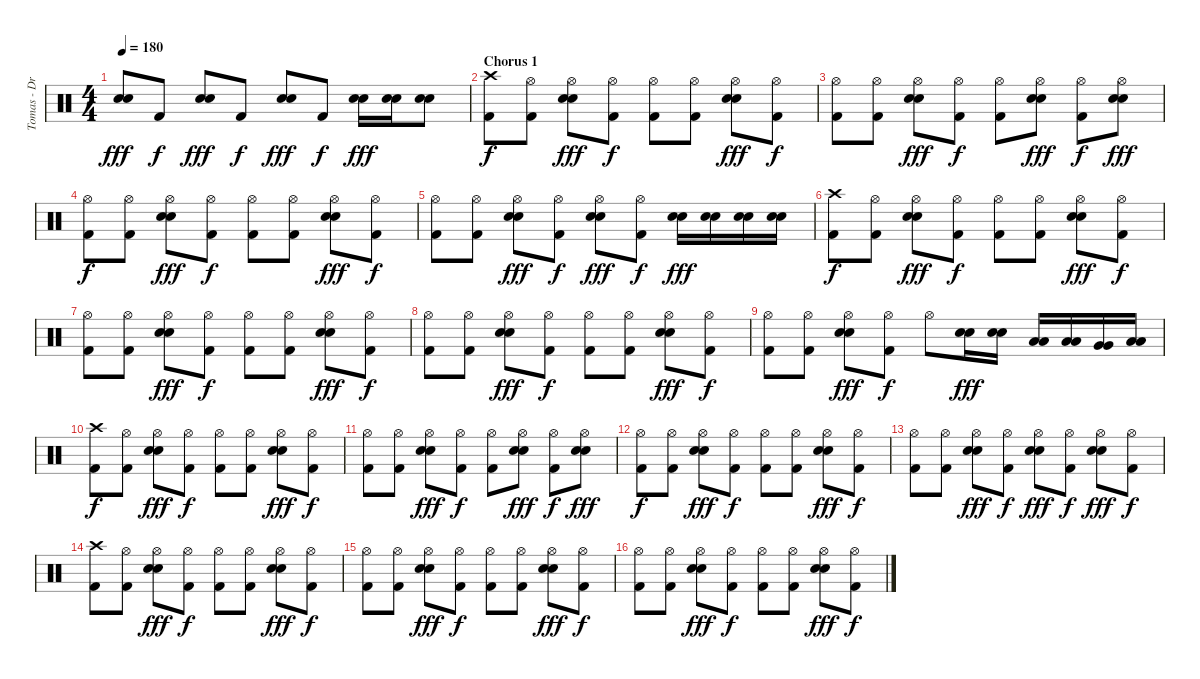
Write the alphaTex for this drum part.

\track ("Tomas - Drums" "Tomas - Dr") {instrument percussion}
\staff {score}
\articulation defaults
\ts (4 4)
\tempo 180
\clef neutral
\ks c
("Electric Snare (hit)" "Electric Snare (hit)").8{dy fff} "Kick (hit) 2".8{dy f} ("Electric Snare (hit)" "Electric Snare (hit)").8{dy fff} "Kick (hit) 2".8{dy f} ("Electric Snare (hit)" "Electric Snare (hit)").8{dy fff} "Kick (hit) 2".8{dy f} ("Electric Snare (hit)" "Electric Snare (hit)").16{dy fff} ("Electric Snare (hit)" "Electric Snare (hit)").16 ("Electric Snare (hit)" "Electric Snare (hit)").8 |
\section ("" "Chorus 1")
("Crash high (hit)" "Kick (hit) 2").8{dy f} ("Hi-Hat (open)" "Kick (hit) 2").8 ("Hi-Hat (open)" "Electric Snare (hit)" "Electric Snare (hit)").8{dy fff} ("Hi-Hat (open)" "Kick (hit) 2").8{dy f} ("Hi-Hat (open)" "Kick (hit) 2").8 ("Hi-Hat (open)" "Kick (hit) 2").8 ("Hi-Hat (open)" "Electric Snare (hit)" "Electric Snare (hit)").8{dy fff} ("Hi-Hat (open)" "Kick (hit) 2").8{dy f} |
("Hi-Hat (open)" "Kick (hit) 2").8 ("Hi-Hat (open)" "Kick (hit) 2").8 ("Hi-Hat (open)" "Electric Snare (hit)" "Electric Snare (hit)").8{dy fff} ("Hi-Hat (open)" "Kick (hit) 2").8{dy f} ("Hi-Hat (open)" "Kick (hit) 2").8 ("Hi-Hat (open)" "Electric Snare (hit)" "Electric Snare (hit)").8{dy fff} ("Hi-Hat (open)" "Kick (hit) 2").8{dy f} ("Hi-Hat (open)" "Electric Snare (hit)" "Electric Snare (hit)").8{dy fff} |
("Hi-Hat (open)" "Kick (hit) 2").8{dy f} ("Hi-Hat (open)" "Kick (hit) 2").8 ("Hi-Hat (open)" "Electric Snare (hit)" "Electric Snare (hit)").8{dy fff} ("Hi-Hat (open)" "Kick (hit) 2").8{dy f} ("Hi-Hat (open)" "Kick (hit) 2").8 ("Hi-Hat (open)" "Kick (hit) 2").8 ("Hi-Hat (open)" "Electric Snare (hit)" "Electric Snare (hit)").8{dy fff} ("Hi-Hat (open)" "Kick (hit) 2").8{dy f} |
("Hi-Hat (open)" "Kick (hit) 2").8 ("Hi-Hat (open)" "Kick (hit) 2").8 ("Hi-Hat (open)" "Electric Snare (hit)" "Electric Snare (hit)").8{dy fff} ("Hi-Hat (open)" "Kick (hit) 2").8{dy f} ("Hi-Hat (open)" "Electric Snare (hit)" "Electric Snare (hit)").8{dy fff} ("Hi-Hat (open)" "Kick (hit) 2").8{dy f} ("Electric Snare (hit)" "Electric Snare (hit)").16{dy fff} ("Electric Snare (hit)" "Electric Snare (hit)").16 ("Electric Snare (hit)" "Electric Snare (hit)").16 ("Electric Snare (hit)" "Electric Snare (hit)").16 |
("Crash high (hit)" "Kick (hit) 2").8{dy f} ("Hi-Hat (open)" "Kick (hit) 2").8 ("Hi-Hat (open)" "Electric Snare (hit)" "Electric Snare (hit)").8{dy fff} ("Hi-Hat (open)" "Kick (hit) 2").8{dy f} ("Hi-Hat (open)" "Kick (hit) 2").8 ("Hi-Hat (open)" "Kick (hit) 2").8 ("Hi-Hat (open)" "Electric Snare (hit)" "Electric Snare (hit)").8{dy fff} ("Hi-Hat (open)" "Kick (hit) 2").8{dy f} |
("Hi-Hat (open)" "Kick (hit) 2").8 ("Hi-Hat (open)" "Kick (hit) 2").8 ("Hi-Hat (open)" "Electric Snare (hit)" "Electric Snare (hit)").8{dy fff} ("Hi-Hat (open)" "Kick (hit) 2").8{dy f} ("Hi-Hat (open)" "Kick (hit) 2").8 ("Hi-Hat (open)" "Kick (hit) 2").8 ("Hi-Hat (open)" "Electric Snare (hit)" "Electric Snare (hit)").8{dy fff} ("Hi-Hat (open)" "Kick (hit) 2").8{dy f} |
("Hi-Hat (open)" "Kick (hit) 2").8 ("Hi-Hat (open)" "Kick (hit) 2").8 ("Hi-Hat (open)" "Electric Snare (hit)" "Electric Snare (hit)").8{dy fff} ("Hi-Hat (open)" "Kick (hit) 2").8{dy f} ("Hi-Hat (open)" "Kick (hit) 2").8 ("Hi-Hat (open)" "Kick (hit) 2").8 ("Hi-Hat (open)" "Electric Snare (hit)" "Electric Snare (hit)").8{dy fff} ("Hi-Hat (open)" "Kick (hit) 2").8{dy f} |
("Hi-Hat (open)" "Kick (hit) 2").8 ("Hi-Hat (open)" "Kick (hit) 2").8 ("Hi-Hat (open)" "Electric Snare (hit)" "Electric Snare (hit)").8{dy fff} ("Hi-Hat (open)" "Kick (hit) 2").8{dy f} "Hi-Hat (open)".8 ("Electric Snare (hit)" "Electric Snare (hit)").16{dy fff} ("Electric Snare (hit)" "Electric Snare (hit)").16 ("Low Tom (hit)" "Low Tom (hit)").16 ("Low Tom (hit)" "Low Tom (hit)").16 ("Very Low Tom (hit)" "Very Low Tom (hit)").16 ("Low Floor Tom (hit)" "Low Floor Tom (hit)").16 |
("Crash high (hit)" "Kick (hit) 2").8{dy f} ("Hi-Hat (open)" "Kick (hit) 2").8 ("Hi-Hat (open)" "Electric Snare (hit)" "Electric Snare (hit)").8{dy fff} ("Hi-Hat (open)" "Kick (hit) 2").8{dy f} ("Hi-Hat (open)" "Kick (hit) 2").8 ("Hi-Hat (open)" "Kick (hit) 2").8 ("Hi-Hat (open)" "Electric Snare (hit)" "Electric Snare (hit)").8{dy fff} ("Hi-Hat (open)" "Kick (hit) 2").8{dy f} |
("Hi-Hat (open)" "Kick (hit) 2").8 ("Hi-Hat (open)" "Kick (hit) 2").8 ("Hi-Hat (open)" "Electric Snare (hit)" "Electric Snare (hit)").8{dy fff} ("Hi-Hat (open)" "Kick (hit) 2").8{dy f} ("Hi-Hat (open)" "Kick (hit) 2").8 ("Hi-Hat (open)" "Electric Snare (hit)" "Electric Snare (hit)").8{dy fff} ("Hi-Hat (open)" "Kick (hit) 2").8{dy f} ("Hi-Hat (open)" "Electric Snare (hit)" "Electric Snare (hit)").8{dy fff} |
("Hi-Hat (open)" "Kick (hit) 2").8{dy f} ("Hi-Hat (open)" "Kick (hit) 2").8 ("Hi-Hat (open)" "Electric Snare (hit)" "Electric Snare (hit)").8{dy fff} ("Hi-Hat (open)" "Kick (hit) 2").8{dy f} ("Hi-Hat (open)" "Kick (hit) 2").8 ("Hi-Hat (open)" "Kick (hit) 2").8 ("Hi-Hat (open)" "Electric Snare (hit)" "Electric Snare (hit)").8{dy fff} ("Hi-Hat (open)" "Kick (hit) 2").8{dy f} |
("Hi-Hat (open)" "Kick (hit) 2").8 ("Hi-Hat (open)" "Kick (hit) 2").8 ("Hi-Hat (open)" "Electric Snare (hit)" "Electric Snare (hit)").8{dy fff} ("Hi-Hat (open)" "Kick (hit) 2").8{dy f} ("Hi-Hat (open)" "Electric Snare (hit)" "Electric Snare (hit)").8{dy fff} ("Hi-Hat (open)" "Kick (hit) 2").8{dy f} ("Hi-Hat (open)" "Electric Snare (hit)" "Electric Snare (hit)").8{dy fff} ("Hi-Hat (open)" "Kick (hit) 2").8{dy f} |
("Crash high (hit)" "Kick (hit) 2").8 ("Hi-Hat (open)" "Kick (hit) 2").8 ("Hi-Hat (open)" "Electric Snare (hit)" "Electric Snare (hit)").8{dy fff} ("Hi-Hat (open)" "Kick (hit) 2").8{dy f} ("Hi-Hat (open)" "Kick (hit) 2").8 ("Hi-Hat (open)" "Kick (hit) 2").8 ("Hi-Hat (open)" "Electric Snare (hit)" "Electric Snare (hit)").8{dy fff} ("Hi-Hat (open)" "Kick (hit) 2").8{dy f} |
("Hi-Hat (open)" "Kick (hit) 2").8 ("Hi-Hat (open)" "Kick (hit) 2").8 ("Hi-Hat (open)" "Electric Snare (hit)" "Electric Snare (hit)").8{dy fff} ("Hi-Hat (open)" "Kick (hit) 2").8{dy f} ("Hi-Hat (open)" "Kick (hit) 2").8 ("Hi-Hat (open)" "Kick (hit) 2").8 ("Hi-Hat (open)" "Electric Snare (hit)" "Electric Snare (hit)").8{dy fff} ("Hi-Hat (open)" "Kick (hit) 2").8{dy f} |
("Hi-Hat (open)" "Kick (hit) 2").8 ("Hi-Hat (open)" "Kick (hit) 2").8 ("Hi-Hat (open)" "Electric Snare (hit)" "Electric Snare (hit)").8{dy fff} ("Hi-Hat (open)" "Kick (hit) 2").8{dy f} ("Hi-Hat (open)" "Kick (hit) 2").8 ("Hi-Hat (open)" "Kick (hit) 2").8 ("Hi-Hat (open)" "Electric Snare (hit)" "Electric Snare (hit)").8{dy fff} ("Hi-Hat (open)" "Kick (hit) 2").8{dy f}
